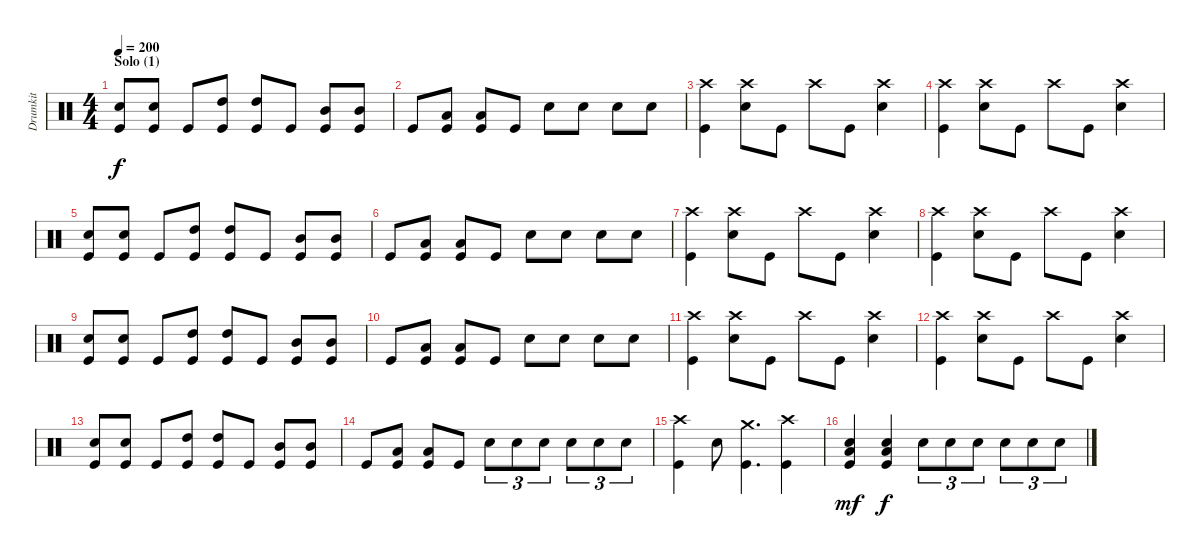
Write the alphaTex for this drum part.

\track ("Drumkit" "Drumkit") {instrument percussion}
\staff {score}
\articulation defaults
\ts (4 4)
\section ("" "Solo (1)")
\tempo 200
\clef neutral
\ks c
("Kick (hit)" "Snare (hit) 2").8{dy f} ("Kick (hit)" "Snare (hit) 2").8 "Kick (hit)".8 ("Kick (hit)" "High Tom (hit)").8 ("Kick (hit)" "High Tom (hit)").8 "Kick (hit)".8 ("Kick (hit)" "Mid Tom (hit)").8 ("Kick (hit)" "Mid Tom (hit)").8 |
"Kick (hit)".8 ("Kick (hit)" "Low Tom (hit)").8 ("Kick (hit)" "Low Tom (hit)").8 "Kick (hit)".8 "Snare (hit) 2".8 "Snare (hit) 2".8 "Snare (hit) 2".8 "Snare (hit) 2".8 |
("Kick (hit)" "Crash high (hit)").4 ("Snare (hit) 2" "Crash high (hit)").8 "Kick (hit)".8 "Crash high (hit)".8 "Kick (hit)".8 ("Snare (hit) 2" "Crash high (hit)").4 |
("Kick (hit)" "Crash high (hit)").4 ("Snare (hit) 2" "Crash high (hit)").8 "Kick (hit)".8 "Crash high (hit)".8 "Kick (hit)".8 ("Snare (hit) 2" "Crash high (hit)").4 |
("Kick (hit)" "Snare (hit) 2").8 ("Kick (hit)" "Snare (hit) 2").8 "Kick (hit)".8 ("Kick (hit)" "High Tom (hit)").8 ("Kick (hit)" "High Tom (hit)").8 "Kick (hit)".8 ("Kick (hit)" "Mid Tom (hit)").8 ("Kick (hit)" "Mid Tom (hit)").8 |
"Kick (hit)".8 ("Kick (hit)" "Low Tom (hit)").8 ("Kick (hit)" "Low Tom (hit)").8 "Kick (hit)".8 "Snare (hit) 2".8 "Snare (hit) 2".8 "Snare (hit) 2".8 "Snare (hit) 2".8 |
("Kick (hit)" "Crash high (hit)").4 ("Snare (hit) 2" "Crash high (hit)").8 "Kick (hit)".8 "Crash high (hit)".8 "Kick (hit)".8 ("Snare (hit) 2" "Crash high (hit)").4 |
("Kick (hit)" "Crash high (hit)").4 ("Snare (hit) 2" "Crash high (hit)").8 "Kick (hit)".8 "Crash high (hit)".8 "Kick (hit)".8 ("Snare (hit) 2" "Crash high (hit)").4 |
("Kick (hit)" "Snare (hit) 2").8 ("Kick (hit)" "Snare (hit) 2").8 "Kick (hit)".8 ("Kick (hit)" "High Tom (hit)").8 ("Kick (hit)" "High Tom (hit)").8 "Kick (hit)".8 ("Kick (hit)" "Mid Tom (hit)").8 ("Kick (hit)" "Mid Tom (hit)").8 |
"Kick (hit)".8 ("Kick (hit)" "Low Tom (hit)").8 ("Kick (hit)" "Low Tom (hit)").8 "Kick (hit)".8 "Snare (hit) 2".8 "Snare (hit) 2".8 "Snare (hit) 2".8 "Snare (hit) 2".8 |
("Kick (hit)" "Crash high (hit)").4 ("Snare (hit) 2" "Crash high (hit)").8 "Kick (hit)".8 "Crash high (hit)".8 "Kick (hit)".8 ("Snare (hit) 2" "Crash high (hit)").4 |
("Kick (hit)" "Crash high (hit)").4 ("Snare (hit) 2" "Crash high (hit)").8 "Kick (hit)".8 "Crash high (hit)".8 "Kick (hit)".8 ("Snare (hit) 2" "Crash high (hit)").4 |
("Kick (hit)" "Snare (hit) 2").8 ("Kick (hit)" "Snare (hit) 2").8 "Kick (hit)".8 ("Kick (hit)" "High Tom (hit)").8 ("Kick (hit)" "High Tom (hit)").8 "Kick (hit)".8 ("Kick (hit)" "Mid Tom (hit)").8 ("Kick (hit)" "Mid Tom (hit)").8 |
"Kick (hit)".8 ("Kick (hit)" "Low Tom (hit)").8 ("Kick (hit)" "Low Tom (hit)").8 "Kick (hit)".8 "Snare (hit) 2".8{tu (3 2)} "Snare (hit) 2".8{tu (3 2)} "Snare (hit) 2".8{tu (3 2)} "Snare (hit) 2".8{tu (3 2)} "Snare (hit) 2".8{tu (3 2)} "Snare (hit) 2".8{tu (3 2)} |
("Kick (hit)" "Crash high (hit)").4 "Snare (hit) 2".8 ("Kick (hit)" "Crash medium (hit)").4{d} ("Kick (hit)" "Crash high (hit)").4 |
("Kick (hit)" "Snare (hit) 2" "Low Floor Tom (hit)").4{dy mf} ("Kick (hit)" "Snare (hit) 2" "Low Floor Tom (hit)").4{dy f} "Snare (hit) 2".8{tu (3 2)} "Snare (hit) 2".8{tu (3 2)} "Snare (hit) 2".8{tu (3 2)} "Snare (hit) 2".8{tu (3 2)} "Snare (hit) 2".8{tu (3 2)} "Snare (hit) 2".8{tu (3 2)}
